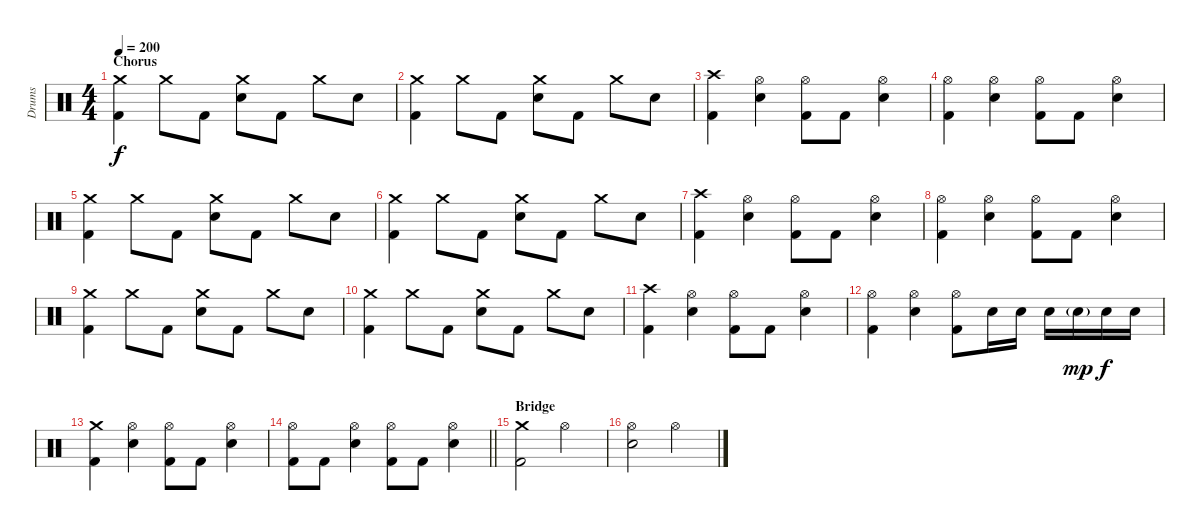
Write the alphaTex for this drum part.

\track ("Drums" "Drums") {instrument percussion}
\staff {score}
\articulation defaults
\ts (4 4)
\section ("" "Chorus")
\tempo 200
\clef neutral
\ks c
("Crash medium (hit)" "Kick (hit) 2").4{dy f} "Crash medium (hit)".8 "Kick (hit) 2".8 ("Crash medium (hit)" "Electric Snare (hit)").8 "Kick (hit) 2".8 "Crash medium (hit)".8 "Electric Snare (hit)".8 |
("Crash medium (hit)" "Kick (hit) 2").4 "Crash medium (hit)".8 "Kick (hit) 2".8 ("Crash medium (hit)" "Electric Snare (hit)").8 "Kick (hit) 2".8 "Crash medium (hit)".8 "Electric Snare (hit)".8 |
("Crash high (hit)" "Kick (hit) 2").4 ("Hi-Hat (open)" "Electric Snare (hit)").4 ("Hi-Hat (open)" "Kick (hit) 2").8 "Kick (hit) 2".8 ("Hi-Hat (open)" "Electric Snare (hit)").4 |
("Hi-Hat (open)" "Kick (hit) 2").4 ("Hi-Hat (open)" "Electric Snare (hit)").4 ("Hi-Hat (open)" "Kick (hit) 2").8 "Kick (hit) 2".8 ("Hi-Hat (open)" "Electric Snare (hit)").4 |
("Crash medium (hit)" "Kick (hit) 2").4 "Crash medium (hit)".8 "Kick (hit) 2".8 ("Crash medium (hit)" "Electric Snare (hit)").8 "Kick (hit) 2".8 "Crash medium (hit)".8 "Electric Snare (hit)".8 |
("Crash medium (hit)" "Kick (hit) 2").4 "Crash medium (hit)".8 "Kick (hit) 2".8 ("Crash medium (hit)" "Electric Snare (hit)").8 "Kick (hit) 2".8 "Crash medium (hit)".8 "Electric Snare (hit)".8 |
("Crash high (hit)" "Kick (hit) 2").4 ("Hi-Hat (open)" "Electric Snare (hit)").4 ("Hi-Hat (open)" "Kick (hit) 2").8 "Kick (hit) 2".8 ("Hi-Hat (open)" "Electric Snare (hit)").4 |
("Hi-Hat (open)" "Kick (hit) 2").4 ("Hi-Hat (open)" "Electric Snare (hit)").4 ("Hi-Hat (open)" "Kick (hit) 2").8 "Kick (hit) 2".8 ("Hi-Hat (open)" "Electric Snare (hit)").4 |
("Crash medium (hit)" "Kick (hit) 2").4 "Crash medium (hit)".8 "Kick (hit) 2".8 ("Crash medium (hit)" "Electric Snare (hit)").8 "Kick (hit) 2".8 "Crash medium (hit)".8 "Electric Snare (hit)".8 |
("Crash medium (hit)" "Kick (hit) 2").4 "Crash medium (hit)".8 "Kick (hit) 2".8 ("Crash medium (hit)" "Electric Snare (hit)").8 "Kick (hit) 2".8 "Crash medium (hit)".8 "Electric Snare (hit)".8 |
("Crash high (hit)" "Kick (hit) 2").4 ("Hi-Hat (open)" "Electric Snare (hit)").4 ("Hi-Hat (open)" "Kick (hit) 2").8 "Kick (hit) 2".8 ("Hi-Hat (open)" "Electric Snare (hit)").4 |
("Hi-Hat (open)" "Kick (hit) 2").4 ("Hi-Hat (open)" "Electric Snare (hit)").4 ("Hi-Hat (open)" "Kick (hit) 2").8 "Electric Snare (hit)".16 "Electric Snare (hit)".16 "Electric Snare (hit)".16 "Electric Snare (hit)"{g}.16{dy mp} "Electric Snare (hit)".16{dy f} "Electric Snare (hit)".16 |
("Crash medium (hit)" "Kick (hit) 2").4 ("Hi-Hat (open)" "Electric Snare (hit)").4 ("Hi-Hat (open)" "Kick (hit) 2").8 "Kick (hit) 2".8 ("Hi-Hat (open)" "Electric Snare (hit)").4 |
\barLineRight lightlight
("Hi-Hat (open)" "Kick (hit) 2").8 "Kick (hit) 2".8 ("Hi-Hat (open)" "Electric Snare (hit)").4 ("Hi-Hat (open)" "Kick (hit) 2").8 "Kick (hit) 2".8 ("Hi-Hat (open)" "Electric Snare (hit)").4 |
\section ("" "Bridge")
("Crash medium (hit)" "Kick (hit) 2").2 "Hi-Hat (open)".2 |
("Hi-Hat (open)" "Electric Snare (hit)").2 "Hi-Hat (open)".2
